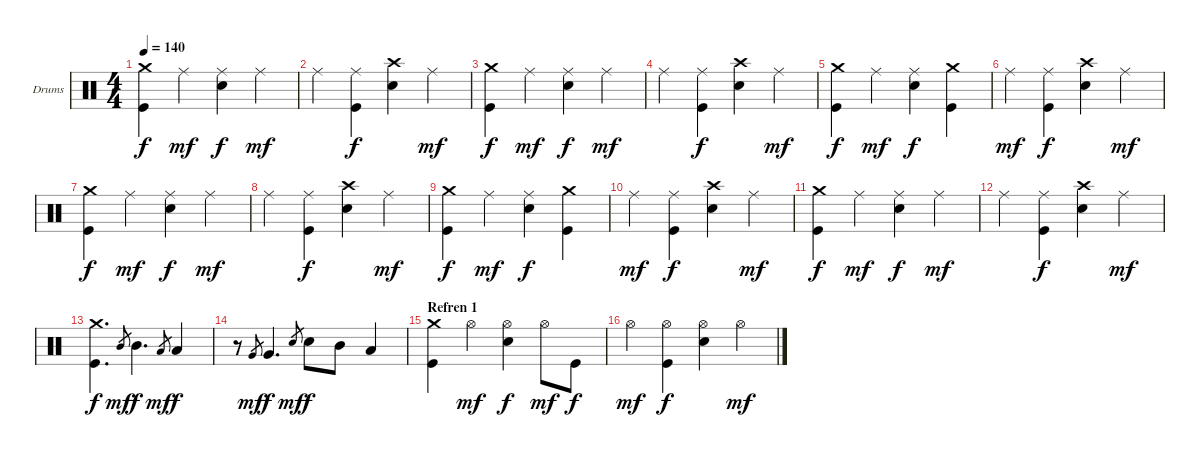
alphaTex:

\bracketExtendMode groupsimilarinstruments
\firstSystemTrackNameOrientation horizontal
\otherSystemsTrackNameOrientation horizontal
\track ("Drumkit" "Drums") {instrument percussion}
\staff {score}
\articulation defaults
\ts (4 4)
\tempo 140
\clef neutral
\ks c
("Kick (hit)" "Crash medium (hit)").4{dy f} "Ride (middle)".4{dy mf} ("Snare (hit) 2" "Ride (middle)").4{dy f} "Ride (middle)".4{dy mf} |
"Ride (middle)".4 ("Kick (hit)" "Ride (middle)").4{dy f} ("Snare (hit) 2" "Crash high (hit)").4 "Ride (middle)".4{dy mf} |
("Kick (hit)" "Crash medium (hit)").4{dy f} "Ride (middle)".4{dy mf} ("Snare (hit) 2" "Ride (middle)").4{dy f} "Ride (middle)".4{dy mf} |
"Ride (middle)".4 ("Kick (hit)" "Ride (middle)").4{dy f} ("Snare (hit) 2" "Crash high (hit)").4 "Ride (middle)".4{dy mf} |
("Kick (hit)" "Crash medium (hit)").4{dy f} "Ride (middle)".4{dy mf} ("Snare (hit) 2" "Ride (middle)").4{dy f} ("Kick (hit)" "Crash medium (hit)").4 |
"Ride (middle)".4{dy mf} ("Kick (hit)" "Ride (middle)").4{dy f} ("Snare (hit) 2" "Crash high (hit)").4 "Ride (middle)".4{dy mf} |
("Kick (hit)" "Crash medium (hit)").4{dy f} "Ride (middle)".4{dy mf} ("Snare (hit) 2" "Ride (middle)").4{dy f} "Ride (middle)".4{dy mf} |
"Ride (middle)".4 ("Kick (hit)" "Ride (middle)").4{dy f} ("Snare (hit) 2" "Crash high (hit)").4 "Ride (middle)".4{dy mf} |
("Kick (hit)" "Crash medium (hit)").4{dy f} "Ride (middle)".4{dy mf} ("Snare (hit) 2" "Ride (middle)").4{dy f} ("Kick (hit)" "Crash medium (hit)").4 |
"Ride (middle)".4{dy mf} ("Kick (hit)" "Ride (middle)").4{dy f} ("Snare (hit) 2" "Crash high (hit)").4 "Ride (middle)".4{dy mf} |
("Kick (hit)" "Crash medium (hit)").4{dy f} "Ride (middle)".4{dy mf} ("Snare (hit) 2" "Ride (middle)").4{dy f} "Ride (middle)".4{dy mf} |
"Ride (middle)".4 ("Kick (hit)" "Ride (middle)").4{dy f} ("Snare (hit) 2" "Crash high (hit)").4 "Ride (middle)".4{dy mf} |
("Kick (hit)" "Crash medium (hit)").4{d dy f} "Mid Tom (hit)".8{gr dy mf} "Mid Tom (hit)".4{d dy f} "Low Tom (hit)".8{gr dy mf} "Low Tom (hit)".4{dy f} |
r.8 "Very Low Tom (hit)".8{gr dy mf} "Very Low Tom (hit)".4{d dy f} "Snare (hit) 2".8{gr dy mf} "Snare (hit) 2".8{dy f} "Mid Tom (hit)".8 "Low Tom (hit)".4 |
\section ("" "Refren 1")
("Kick (hit)" "Crash medium (hit)").4 "Hi-Hat (open)".4{dy mf} ("Snare (hit) 2" "Hi-Hat (open)").4{dy f} "Hi-Hat (open)".8{dy mf} "Kick (hit)".8{dy f} |
"Hi-Hat (open)".4{dy mf} ("Kick (hit)" "Hi-Hat (open)").4{dy f} ("Snare (hit) 2" "Hi-Hat (open)").4 "Hi-Hat (open)".4{dy mf}
